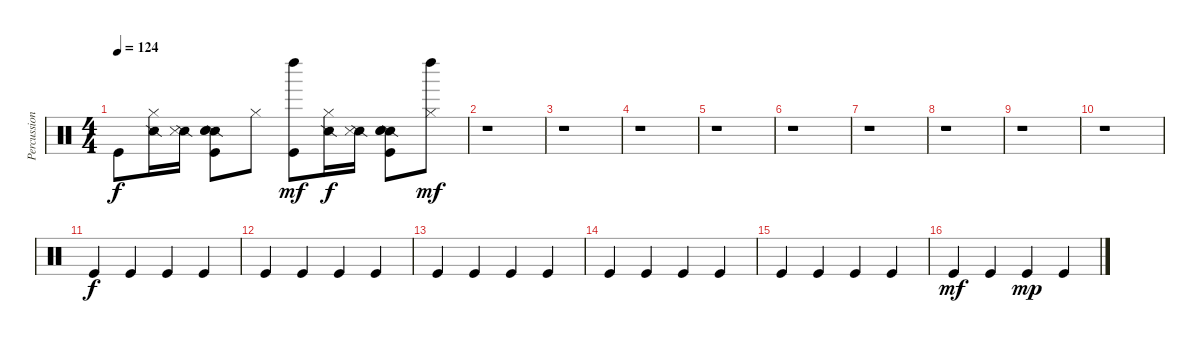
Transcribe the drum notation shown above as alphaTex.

\track ("Percussion" "Percussion") {instrument percussion}
\staff {score}
\articulation defaults
\ts (4 4)
\tempo 124
\clef neutral
\ks c "Kick (hit)".8{dy f}
("Snare (side stick) 2" "Hi-Hat (closed)").16 ("Snare (side stick) 2" "Snare (side stick) 3").16 ("Snare (side stick) 2" "Snare (hit) 2" "Hand Clap (hit)" "Kick (hit)").8 "Hi-Hat (closed)".8 ("Left Maraca (hit)" "Kick (hit)").8{dy mf} ("Snare (side stick) 2" "Hi-Hat (closed)").16{dy f} ("Snare (side stick) 2" "Snare (side stick) 3").16 ("Snare (side stick) 2" "Snare (hit) 2" "Hand Clap (hit)" "Kick (hit)").8 ("Left Maraca (hit)" "Hi-Hat (closed)").8{dy mf} |
r.1 |
r.1 |
r.1 |
r.1 |
r.1 |
r.1 |
r.1 |
r.1 |
r.1 |
"Kick (hit)".4{dy f} "Kick (hit)".4 "Kick (hit)".4 "Kick (hit)".4 |
"Kick (hit)".4 "Kick (hit)".4 "Kick (hit)".4 "Kick (hit)".4 |
"Kick (hit)".4 "Kick (hit)".4 "Kick (hit)".4 "Kick (hit)".4 |
"Kick (hit)".4 "Kick (hit)".4 "Kick (hit)".4 "Kick (hit)".4 |
"Kick (hit)".4 "Kick (hit)".4 "Kick (hit)".4 "Kick (hit)".4 |
"Kick (hit)".4{dy mf} "Kick (hit)".4 "Kick (hit)".4{dy mp} "Kick (hit)".4
